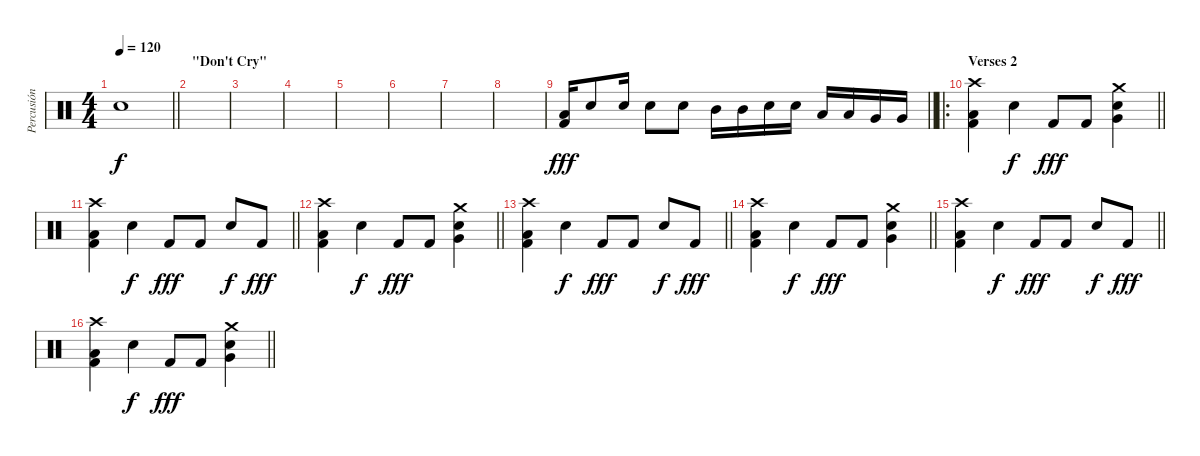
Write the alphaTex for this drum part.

\track ("Percusión" "Percusión") {instrument percussion}
\staff {score}
\articulation defaults
\ts (4 4)
\tempo 120
\clef neutral
\barLineRight lightlight
\ks c "Snare (hit)"{t}.1{dy f}
|
\section ("" "\"Don't Cry\"")
|
|
|
|
|
|
|
\barLineRight lightlight
("Low Floor Tom (hit)" "Kick (hit) 2").16{dy fff} "Electric Snare (hit)".8 "Electric Snare (hit)".16 "Electric Snare (hit)".8 "Electric Snare (hit)".8 "Mid Tom (hit)".16 "Mid Tom (hit)".16 "Electric Snare (hit)".16 "Electric Snare (hit)".16 "Low Tom (hit)".16 "Low Tom (hit)".16 "Very Low Tom (hit)".16 "Very Low Tom (hit)".16 |
\ro
\section ("" "Verses 2")
\barLineRight lightlight
("Crash high (hit)" "Low Floor Tom (hit)" "Kick (hit) 2").4 "Electric Snare (hit)".4{dy f} "Kick (hit) 2".8{dy fff} "Kick (hit) 2".8 ("Crash medium (hit)" "Electric Snare (hit)" "Very Low Tom (hit)").4 |
\barLineRight lightlight
("Crash high (hit)" "Low Floor Tom (hit)" "Kick (hit) 2").4 "Electric Snare (hit)".4{dy f} "Kick (hit) 2".8{dy fff} "Kick (hit) 2".8 "Electric Snare (hit)".8{dy f} "Kick (hit) 2".8{dy fff} |
\barLineRight lightlight
("Crash high (hit)" "Low Floor Tom (hit)" "Kick (hit) 2").4 "Electric Snare (hit)".4{dy f} "Kick (hit) 2".8{dy fff} "Kick (hit) 2".8 ("Crash medium (hit)" "Electric Snare (hit)" "Very Low Tom (hit)").4 |
\barLineRight lightlight
("Crash high (hit)" "Low Floor Tom (hit)" "Kick (hit) 2").4 "Electric Snare (hit)".4{dy f} "Kick (hit) 2".8{dy fff} "Kick (hit) 2".8 "Electric Snare (hit)".8{dy f} "Kick (hit) 2".8{dy fff} |
\barLineRight lightlight
("Crash high (hit)" "Low Floor Tom (hit)" "Kick (hit) 2").4 "Electric Snare (hit)".4{dy f} "Kick (hit) 2".8{dy fff} "Kick (hit) 2".8 ("Crash medium (hit)" "Electric Snare (hit)" "Very Low Tom (hit)").4 |
\barLineRight lightlight
("Crash high (hit)" "Low Floor Tom (hit)" "Kick (hit) 2").4 "Electric Snare (hit)".4{dy f} "Kick (hit) 2".8{dy fff} "Kick (hit) 2".8 "Electric Snare (hit)".8{dy f} "Kick (hit) 2".8{dy fff} |
\barLineRight lightlight
("Crash high (hit)" "Low Floor Tom (hit)" "Kick (hit) 2").4 "Electric Snare (hit)".4{dy f} "Kick (hit) 2".8{dy fff} "Kick (hit) 2".8 ("Crash medium (hit)" "Electric Snare (hit)" "Very Low Tom (hit)").4
